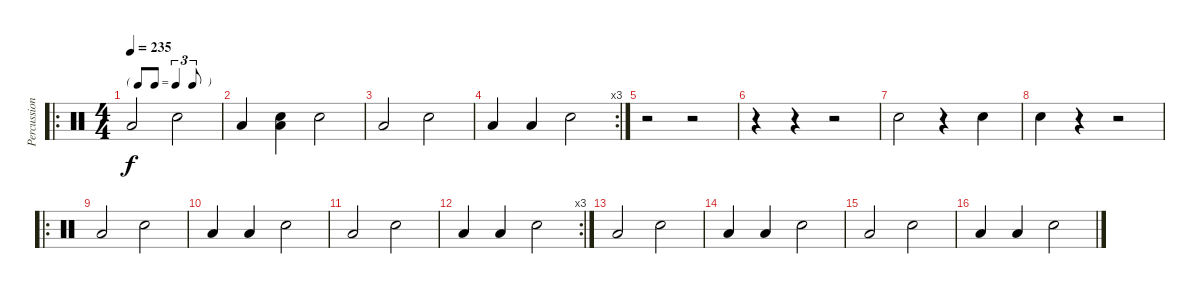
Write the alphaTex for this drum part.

\track ("Percussions" "Percussion") {instrument percussion}
\staff {score}
\articulation defaults
\ro
\ts (4 4)
\tf triplet8th
\tempo 235
\clef neutral
\ks c "Low Tom (hit)".2{dy f} "Snare (hit) 2".2
|
"Low Tom (hit)".4 ("Snare (hit)" "Low Tom (hit)").4 "Snare (hit) 2".2 |
"Low Tom (hit)".2 "Snare (hit) 2".2 |
\rc 3 "Low Tom (hit)".4 "Low Tom (hit)".4 "Snare (hit) 2".2
|
r.2 r.2 |
r.4 r.4 r.2 |
"Snare (hit) 2".2 r.4 "Snare (hit) 2".4 |
"Snare (hit) 2".4 r.4 r.2 |
\ro "Low Tom (hit)".2 "Snare (hit) 2".2
|
"Low Tom (hit)".4 "Low Tom (hit)".4 "Snare (hit) 2".2 |
"Low Tom (hit)".2 "Snare (hit) 2".2 |
\rc 3 "Low Tom (hit)".4 "Low Tom (hit)".4 "Snare (hit) 2".2
|
"Low Tom (hit)".2 "Snare (hit) 2".2 |
"Low Tom (hit)".4 "Low Tom (hit)".4 "Snare (hit) 2".2 |
"Low Tom (hit)".2 "Snare (hit) 2".2 |
"Low Tom (hit)".4 "Low Tom (hit)".4 "Snare (hit) 2".2
